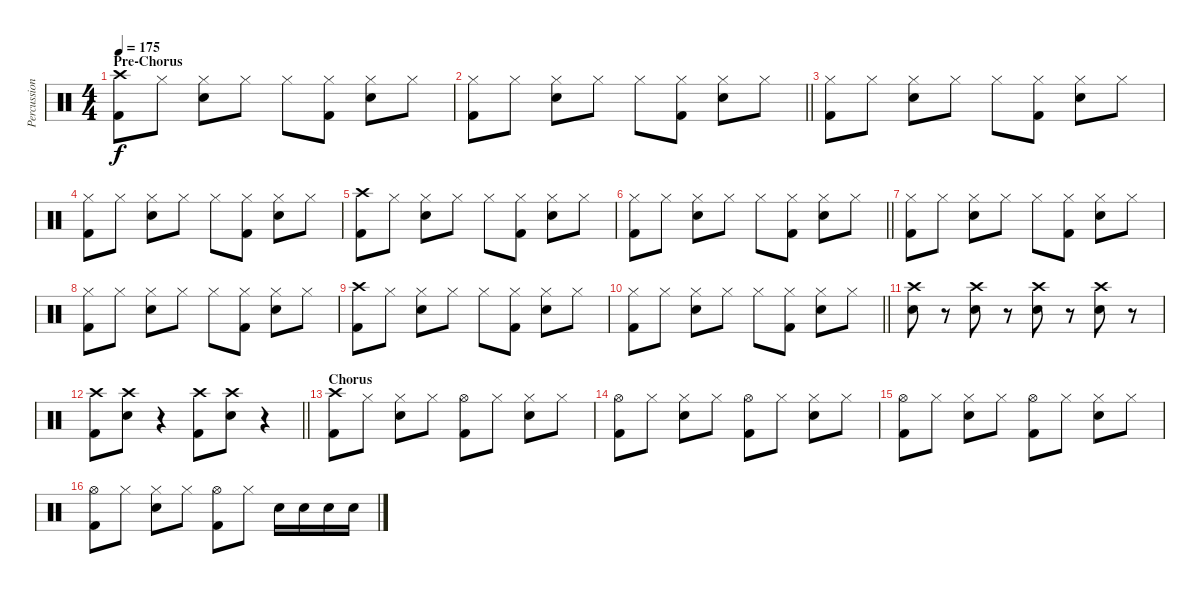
\track ("Percussion" "Percussion") {instrument percussion}
\staff {score}
\articulation defaults
\ts (4 4)
\section ("" "Pre-Chorus")
\tempo 175
\clef neutral
\ks c
("Crash high (hit)" "Kick (hit) 2").8{dy f} "Hi-Hat (closed)".8 ("Hi-Hat (closed)" "Snare (hit) 2").8 "Hi-Hat (closed)".8 "Hi-Hat (closed)".8 ("Hi-Hat (closed)" "Kick (hit) 2").8 ("Hi-Hat (closed)" "Snare (hit) 2").8 "Hi-Hat (closed)".8 |
\barLineRight lightlight
("Hi-Hat (closed)" "Kick (hit) 2").8 "Hi-Hat (closed)".8 ("Hi-Hat (closed)" "Snare (hit) 2").8 "Hi-Hat (closed)".8 "Hi-Hat (closed)".8 ("Hi-Hat (closed)" "Kick (hit) 2").8 ("Hi-Hat (closed)" "Snare (hit) 2").8 "Hi-Hat (closed)".8 |
("Hi-Hat (closed)" "Kick (hit) 2").8 "Hi-Hat (closed)".8 ("Hi-Hat (closed)" "Snare (hit) 2").8 "Hi-Hat (closed)".8 "Hi-Hat (closed)".8 ("Hi-Hat (closed)" "Kick (hit) 2").8 ("Hi-Hat (closed)" "Snare (hit) 2").8 "Hi-Hat (closed)".8 |
("Hi-Hat (closed)" "Kick (hit) 2").8 "Hi-Hat (closed)".8 ("Hi-Hat (closed)" "Snare (hit) 2").8 "Hi-Hat (closed)".8 "Hi-Hat (closed)".8 ("Hi-Hat (closed)" "Kick (hit) 2").8 ("Hi-Hat (closed)" "Snare (hit) 2").8 "Hi-Hat (closed)".8 |
("Crash high (hit)" "Kick (hit) 2").8 "Hi-Hat (closed)".8 ("Hi-Hat (closed)" "Snare (hit) 2").8 "Hi-Hat (closed)".8 "Hi-Hat (closed)".8 ("Hi-Hat (closed)" "Kick (hit) 2").8 ("Hi-Hat (closed)" "Snare (hit) 2").8 "Hi-Hat (closed)".8 |
\barLineRight lightlight
("Hi-Hat (closed)" "Kick (hit) 2").8 "Hi-Hat (closed)".8 ("Hi-Hat (closed)" "Snare (hit) 2").8 "Hi-Hat (closed)".8 "Hi-Hat (closed)".8 ("Hi-Hat (closed)" "Kick (hit) 2").8 ("Hi-Hat (closed)" "Snare (hit) 2").8 "Hi-Hat (closed)".8 |
("Hi-Hat (closed)" "Kick (hit) 2").8 "Hi-Hat (closed)".8 ("Hi-Hat (closed)" "Snare (hit) 2").8 "Hi-Hat (closed)".8 "Hi-Hat (closed)".8 ("Hi-Hat (closed)" "Kick (hit) 2").8 ("Hi-Hat (closed)" "Snare (hit) 2").8 "Hi-Hat (closed)".8 |
("Hi-Hat (closed)" "Kick (hit) 2").8 "Hi-Hat (closed)".8 ("Hi-Hat (closed)" "Snare (hit) 2").8 "Hi-Hat (closed)".8 "Hi-Hat (closed)".8 ("Hi-Hat (closed)" "Kick (hit) 2").8 ("Hi-Hat (closed)" "Snare (hit) 2").8 "Hi-Hat (closed)".8 |
("Crash high (hit)" "Kick (hit) 2").8 "Hi-Hat (closed)".8 ("Hi-Hat (closed)" "Snare (hit) 2").8 "Hi-Hat (closed)".8 "Hi-Hat (closed)".8 ("Hi-Hat (closed)" "Kick (hit) 2").8 ("Hi-Hat (closed)" "Snare (hit) 2").8 "Hi-Hat (closed)".8 |
\barLineRight lightlight
("Hi-Hat (closed)" "Kick (hit) 2").8 "Hi-Hat (closed)".8 ("Hi-Hat (closed)" "Snare (hit) 2").8 "Hi-Hat (closed)".8 "Hi-Hat (closed)".8 ("Hi-Hat (closed)" "Kick (hit) 2").8 ("Hi-Hat (closed)" "Snare (hit) 2").8 "Hi-Hat (closed)".8 |
("Crash high (hit)" "Snare (hit) 2").8 r.8 ("Crash high (hit)" "Snare (hit) 2").8 r.8 ("Crash high (hit)" "Snare (hit) 2").8 r.8 ("Crash high (hit)" "Snare (hit) 2").8 r.8 |
\barLineRight lightlight
("Crash high (hit)" "Kick (hit) 2").8 ("Crash high (hit)" "Snare (hit) 2").8 r.4 ("Crash high (hit)" "Kick (hit) 2").8 ("Crash high (hit)" "Snare (hit) 2").8 r.4 |
\section ("" "Chorus")
("Crash high (hit)" "Kick (hit) 2").8 "Hi-Hat (closed)".8 ("Hi-Hat (closed)" "Snare (hit) 2").8 "Hi-Hat (closed)".8 ("Hi-Hat (open)" "Kick (hit) 2").8 "Hi-Hat (closed)".8 ("Hi-Hat (closed)" "Snare (hit) 2").8 "Hi-Hat (closed)".8 |
("Hi-Hat (open)" "Kick (hit) 2").8 "Hi-Hat (closed)".8 ("Hi-Hat (closed)" "Snare (hit) 2").8 "Hi-Hat (closed)".8 ("Hi-Hat (open)" "Kick (hit) 2").8 "Hi-Hat (closed)".8 ("Hi-Hat (closed)" "Snare (hit) 2").8 "Hi-Hat (closed)".8 |
("Hi-Hat (open)" "Kick (hit) 2").8 "Hi-Hat (closed)".8 ("Hi-Hat (closed)" "Snare (hit) 2").8 "Hi-Hat (closed)".8 ("Hi-Hat (open)" "Kick (hit) 2").8 "Hi-Hat (closed)".8 ("Hi-Hat (closed)" "Snare (hit) 2").8 "Hi-Hat (closed)".8 |
("Hi-Hat (open)" "Kick (hit) 2").8 "Hi-Hat (closed)".8 ("Hi-Hat (closed)" "Snare (hit) 2").8 "Hi-Hat (closed)".8 ("Hi-Hat (open)" "Kick (hit) 2").8 "Hi-Hat (closed)".8 "Snare (hit) 2".16 "Snare (hit) 2".16 "Snare (hit) 2".16 "Snare (hit) 2".16
